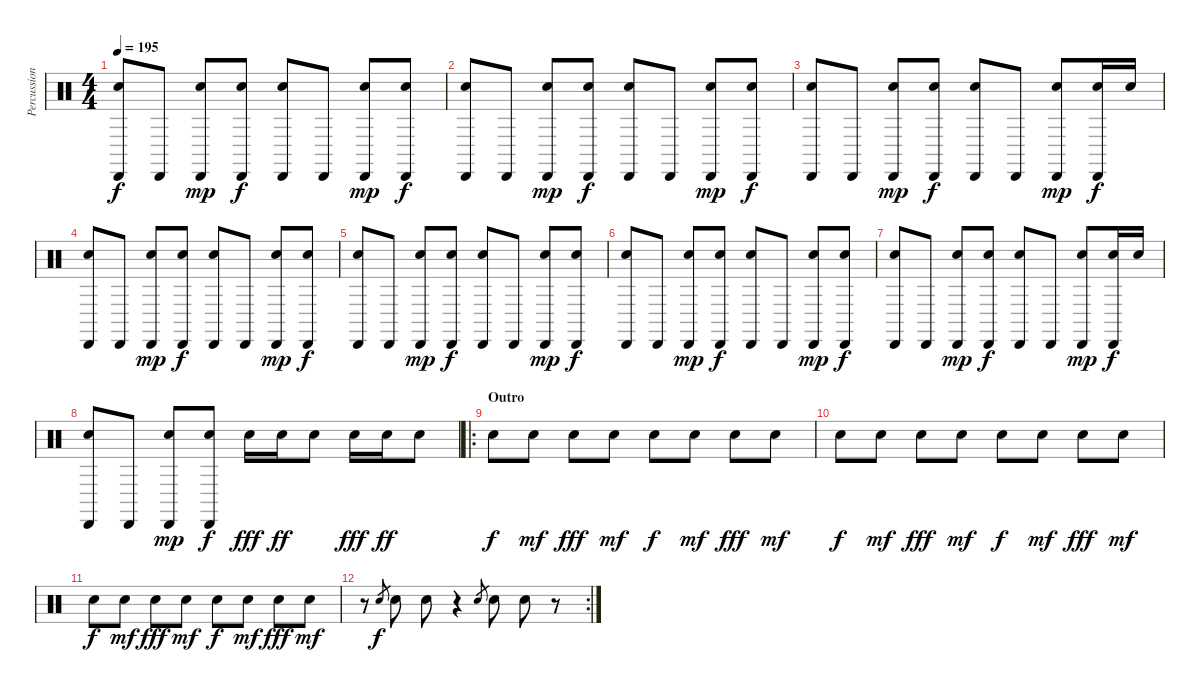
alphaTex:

\track ("Percussion" "Percussion") {instrument percussion}
\staff {score}
\articulation defaults
\ts (4 4)
\tempo 195
\clef neutral
\ks c
("Cabasa (hit)" "Snare (hit) 2").8{dy f} "Cabasa (hit)".8 ("Cabasa (hit)" "Snare (hit) 2").8{dy mp} ("Cabasa (hit)" "Snare (hit) 2").8{dy f} ("Cabasa (hit)" "Snare (hit) 2").8 "Cabasa (hit)".8 ("Cabasa (hit)" "Snare (hit) 2").8{dy mp} ("Cabasa (hit)" "Snare (hit) 2").8{dy f} |
("Cabasa (hit)" "Snare (hit) 2").8 "Cabasa (hit)".8 ("Cabasa (hit)" "Snare (hit) 2").8{dy mp} ("Cabasa (hit)" "Snare (hit) 2").8{dy f} ("Cabasa (hit)" "Snare (hit) 2").8 "Cabasa (hit)".8 ("Cabasa (hit)" "Snare (hit) 2").8{dy mp} ("Cabasa (hit)" "Snare (hit) 2").8{dy f} |
("Cabasa (hit)" "Snare (hit) 2").8 "Cabasa (hit)".8 ("Cabasa (hit)" "Snare (hit) 2").8{dy mp} ("Cabasa (hit)" "Snare (hit) 2").8{dy f} ("Cabasa (hit)" "Snare (hit) 2").8 "Cabasa (hit)".8 ("Cabasa (hit)" "Snare (hit) 2").8{dy mp} ("Cabasa (hit)" "Snare (hit) 2").16{dy f} "Snare (hit) 2".16 |
("Cabasa (hit)" "Snare (hit) 2").8 "Cabasa (hit)".8 ("Cabasa (hit)" "Snare (hit) 2").8{dy mp} ("Cabasa (hit)" "Snare (hit) 2").8{dy f} ("Cabasa (hit)" "Snare (hit) 2").8 "Cabasa (hit)".8 ("Cabasa (hit)" "Snare (hit) 2").8{dy mp} ("Cabasa (hit)" "Snare (hit) 2").8{dy f} |
("Cabasa (hit)" "Snare (hit) 2").8 "Cabasa (hit)".8 ("Cabasa (hit)" "Snare (hit) 2").8{dy mp} ("Cabasa (hit)" "Snare (hit) 2").8{dy f} ("Cabasa (hit)" "Snare (hit) 2").8 "Cabasa (hit)".8 ("Cabasa (hit)" "Snare (hit) 2").8{dy mp} ("Cabasa (hit)" "Snare (hit) 2").8{dy f} |
("Cabasa (hit)" "Snare (hit) 2").8 "Cabasa (hit)".8 ("Cabasa (hit)" "Snare (hit) 2").8{dy mp} ("Cabasa (hit)" "Snare (hit) 2").8{dy f} ("Cabasa (hit)" "Snare (hit) 2").8 "Cabasa (hit)".8 ("Cabasa (hit)" "Snare (hit) 2").8{dy mp} ("Cabasa (hit)" "Snare (hit) 2").8{dy f} |
("Cabasa (hit)" "Snare (hit) 2").8 "Cabasa (hit)".8 ("Cabasa (hit)" "Snare (hit) 2").8{dy mp} ("Cabasa (hit)" "Snare (hit) 2").8{dy f} ("Cabasa (hit)" "Snare (hit) 2").8 "Cabasa (hit)".8 ("Cabasa (hit)" "Snare (hit) 2").8{dy mp} ("Cabasa (hit)" "Snare (hit) 2").16{dy f} "Snare (hit) 2".16 |
("Cabasa (hit)" "Snare (hit) 2").8 "Cabasa (hit)".8 ("Cabasa (hit)" "Snare (hit) 2").8{dy mp} ("Cabasa (hit)" "Snare (hit) 2").8{dy f} "Snare (hit) 2".16{dy fff} "Snare (hit) 2".16{dy ff} "Snare (hit) 2".8 "Snare (hit) 2".16{dy fff} "Snare (hit) 2".16{dy ff} "Snare (hit) 2".8 |
\ro
\section ("" "Outro")
"Snare (hit) 2".8{dy f} "Snare (hit) 2".8{dy mf} "Snare (hit) 2".8{dy fff} "Snare (hit) 2".8{dy mf} "Snare (hit) 2".8{dy f} "Snare (hit) 2".8{dy mf} "Snare (hit) 2".8{dy fff} "Snare (hit) 2".8{dy mf} |
"Snare (hit) 2".8{dy f} "Snare (hit) 2".8{dy mf} "Snare (hit) 2".8{dy fff} "Snare (hit) 2".8{dy mf} "Snare (hit) 2".8{dy f} "Snare (hit) 2".8{dy mf} "Snare (hit) 2".8{dy fff} "Snare (hit) 2".8{dy mf} |
"Snare (hit) 2".8{dy f} "Snare (hit) 2".8{dy mf} "Snare (hit) 2".8{dy fff} "Snare (hit) 2".8{dy mf} "Snare (hit) 2".8{dy f} "Snare (hit) 2".8{dy mf} "Snare (hit) 2".8{dy fff} "Snare (hit) 2".8{dy mf} |
\rc 2
r.8 "Snare (hit) 2".8{gr dy f} "Snare (hit) 2".8 "Snare (hit) 2".8 r.4 "Snare (hit) 2".8{gr} "Snare (hit) 2".8 "Snare (hit) 2".8 r.8
